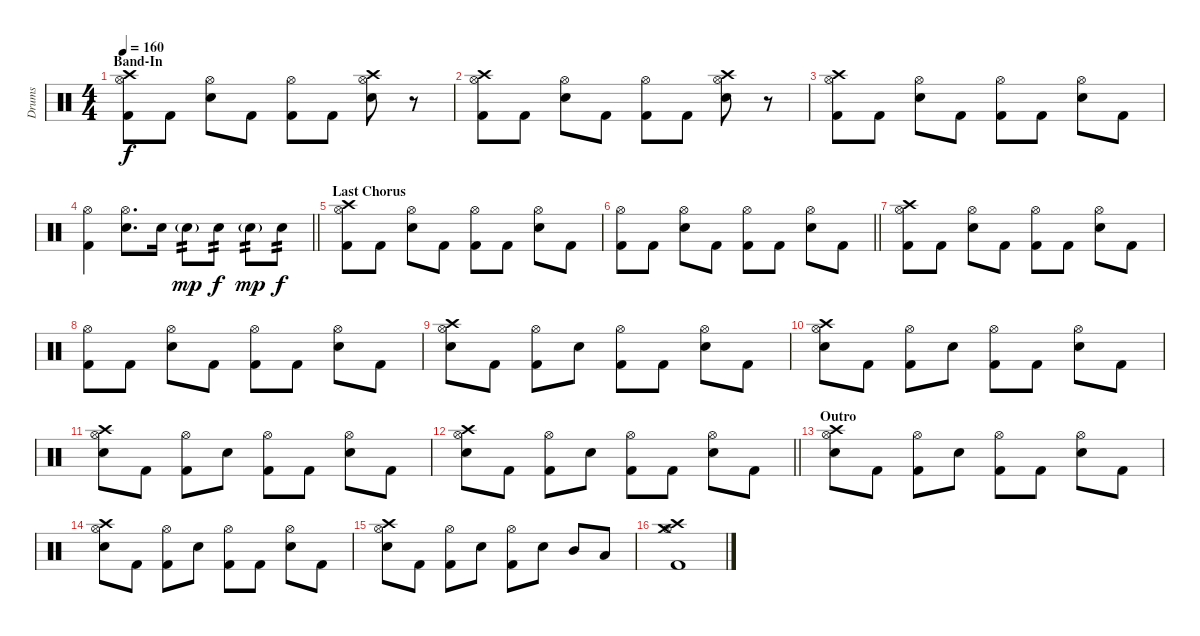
\track ("Drums" "Drums") {instrument percussion}
\staff {score}
\articulation defaults
\ts (4 4)
\section ("" "Band-In")
\tempo 160
\clef neutral
\ks c
("Crash high (hit)" "Hi-Hat (open)" "Kick (hit) 2").8{dy f} "Kick (hit) 2".8 ("Hi-Hat (open)" "Electric Snare (hit)").8 "Kick (hit) 2".8 ("Hi-Hat (open)" "Kick (hit) 2").8 "Kick (hit) 2".8 ("Crash high (hit)" "Hi-Hat (open)" "Electric Snare (hit)").8 r.8 |
("Crash high (hit)" "Hi-Hat (open)" "Kick (hit) 2").8 "Kick (hit) 2".8 ("Hi-Hat (open)" "Electric Snare (hit)").8 "Kick (hit) 2".8 ("Hi-Hat (open)" "Kick (hit) 2").8 "Kick (hit) 2".8 ("Crash high (hit)" "Hi-Hat (open)" "Electric Snare (hit)").8 r.8 |
("Crash high (hit)" "Hi-Hat (open)" "Kick (hit) 2").8 "Kick (hit) 2".8 ("Hi-Hat (open)" "Electric Snare (hit)").8 "Kick (hit) 2".8 ("Hi-Hat (open)" "Kick (hit) 2").8 "Kick (hit) 2".8 ("Hi-Hat (open)" "Electric Snare (hit)").8 "Kick (hit) 2".8 |
\barLineRight lightlight
("Hi-Hat (open)" "Kick (hit) 2").4 ("Hi-Hat (open)" "Electric Snare (hit)").8{d} "Electric Snare (hit)".16 "Electric Snare (hit)"{g}.8{tp 2 dy mp} "Electric Snare (hit)".8{tp 2 dy f} "Electric Snare (hit)"{g}.8{tp 2 dy mp} "Electric Snare (hit)".8{tp 2 dy f} |
\section ("" "Last Chorus")
("Crash high (hit)" "Hi-Hat (open)" "Kick (hit) 2").8 "Kick (hit) 2".8 ("Hi-Hat (open)" "Electric Snare (hit)").8 "Kick (hit) 2".8 ("Hi-Hat (open)" "Kick (hit) 2").8 "Kick (hit) 2".8 ("Hi-Hat (open)" "Electric Snare (hit)").8 "Kick (hit) 2".8 |
\barLineRight lightlight
("Hi-Hat (open)" "Kick (hit) 2").8 "Kick (hit) 2".8 ("Hi-Hat (open)" "Electric Snare (hit)").8 "Kick (hit) 2".8 ("Hi-Hat (open)" "Kick (hit) 2").8 "Kick (hit) 2".8 ("Hi-Hat (open)" "Electric Snare (hit)").8 "Kick (hit) 2".8 |
("Crash high (hit)" "Hi-Hat (open)" "Kick (hit) 2").8 "Kick (hit) 2".8 ("Hi-Hat (open)" "Electric Snare (hit)").8 "Kick (hit) 2".8 ("Hi-Hat (open)" "Kick (hit) 2").8 "Kick (hit) 2".8 ("Hi-Hat (open)" "Electric Snare (hit)").8 "Kick (hit) 2".8 |
("Hi-Hat (open)" "Kick (hit) 2").8 "Kick (hit) 2".8 ("Hi-Hat (open)" "Electric Snare (hit)").8 "Kick (hit) 2".8 ("Hi-Hat (open)" "Kick (hit) 2").8 "Kick (hit) 2".8 ("Hi-Hat (open)" "Electric Snare (hit)").8 "Kick (hit) 2".8 |
("Crash high (hit)" "Hi-Hat (open)" "Electric Snare (hit)").8 "Kick (hit) 2".8 ("Hi-Hat (open)" "Kick (hit) 2").8 "Electric Snare (hit)".8 ("Hi-Hat (open)" "Kick (hit) 2").8 "Kick (hit) 2".8 ("Hi-Hat (open)" "Electric Snare (hit)").8 "Kick (hit) 2".8 |
("Crash high (hit)" "Hi-Hat (open)" "Electric Snare (hit)").8 "Kick (hit) 2".8 ("Hi-Hat (open)" "Kick (hit) 2").8 "Electric Snare (hit)".8 ("Hi-Hat (open)" "Kick (hit) 2").8 "Kick (hit) 2".8 ("Hi-Hat (open)" "Electric Snare (hit)").8 "Kick (hit) 2".8 |
("Crash high (hit)" "Hi-Hat (open)" "Electric Snare (hit)").8 "Kick (hit) 2".8 ("Hi-Hat (open)" "Kick (hit) 2").8 "Electric Snare (hit)".8 ("Hi-Hat (open)" "Kick (hit) 2").8 "Kick (hit) 2".8 ("Hi-Hat (open)" "Electric Snare (hit)").8 "Kick (hit) 2".8 |
\barLineRight lightlight
("Crash high (hit)" "Hi-Hat (open)" "Electric Snare (hit)").8 "Kick (hit) 2".8 ("Hi-Hat (open)" "Kick (hit) 2").8 "Electric Snare (hit)".8 ("Hi-Hat (open)" "Kick (hit) 2").8 "Kick (hit) 2".8 ("Hi-Hat (open)" "Electric Snare (hit)").8 "Kick (hit) 2".8 |
\section ("" "Outro")
("Crash high (hit)" "Hi-Hat (open)" "Electric Snare (hit)").8 "Kick (hit) 2".8 ("Hi-Hat (open)" "Kick (hit) 2").8 "Electric Snare (hit)".8 ("Hi-Hat (open)" "Kick (hit) 2").8 "Kick (hit) 2".8 ("Hi-Hat (open)" "Electric Snare (hit)").8 "Kick (hit) 2".8 |
("Crash high (hit)" "Hi-Hat (open)" "Electric Snare (hit)").8 "Kick (hit) 2".8 ("Hi-Hat (open)" "Kick (hit) 2").8 "Electric Snare (hit)".8 ("Hi-Hat (open)" "Kick (hit) 2").8 "Kick (hit) 2".8 ("Hi-Hat (open)" "Electric Snare (hit)").8 "Kick (hit) 2".8 |
("Crash high (hit)" "Hi-Hat (open)" "Electric Snare (hit)").8 "Kick (hit) 2".8 ("Hi-Hat (open)" "Kick (hit) 2").8 "Electric Snare (hit)".8 ("Hi-Hat (open)" "Kick (hit) 2").8 "Electric Snare (hit)".8 "Mid Tom (hit)".8 "Low Tom (hit)".8 |
("Crash high (hit)" "Crash medium (hit)" "Hi-Hat (open)" "Kick (hit) 2").1
